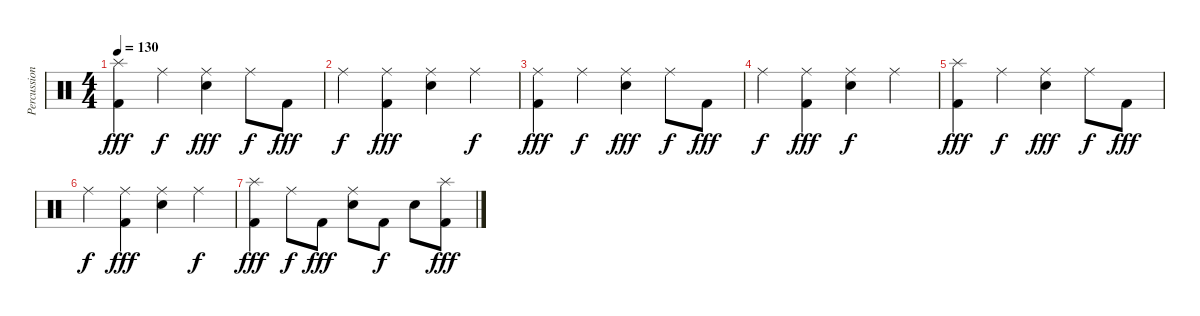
\track ("Percussion" "Percussion") {instrument percussion}
\staff
\articulation defaults
\ts (4 4)
\tempo 130
\clef neutral
\ks c
("Splash (hit)" "Kick (hit) 2").4{dy fff} "Ride (middle)".4{dy f} ("Ride (middle)" "Electric Snare (hit)").4{dy fff} "Ride (middle)".8{dy f} "Kick (hit) 2".8{dy fff} |
"Ride (middle)".4{dy f} ("Ride (middle)" "Kick (hit) 2").4{dy fff} ("Ride (middle)" "Electric Snare (hit)").4 "Ride (middle)".4{dy f} |
("Ride (middle)" "Kick (hit) 2").4{dy fff} "Ride (middle)".4{dy f} ("Ride (middle)" "Electric Snare (hit)").4{dy fff} "Ride (middle)".8{dy f} "Kick (hit) 2".8{dy fff} |
"Ride (middle)".4{dy f} ("Ride (middle)" "Kick (hit) 2").4{dy fff} ("Ride (middle)" "Electric Snare (hit)").4{dy f} "Ride (middle)".4 |
("Splash (hit)" "Kick (hit) 2").4{dy fff} "Ride (middle)".4{dy f} ("Ride (middle)" "Electric Snare (hit)").4{dy fff} "Ride (middle)".8{dy f} "Kick (hit) 2".8{dy fff} |
"Ride (middle)".4{dy f} ("Ride (middle)" "Kick (hit) 2").4{dy fff} ("Ride (middle)" "Electric Snare (hit)").4 "Ride (middle)".4{dy f} |
("Splash (hit)" "Kick (hit) 2").4{dy fff} "Ride (middle)".8{dy f} "Kick (hit) 2".8{dy fff} ("Ride (middle)" "Electric Snare (hit)").8 "Kick (hit) 2".8{dy f} "Electric Snare (hit)".8 ("Splash (hit)" "Kick (hit) 2").8{dy fff}
